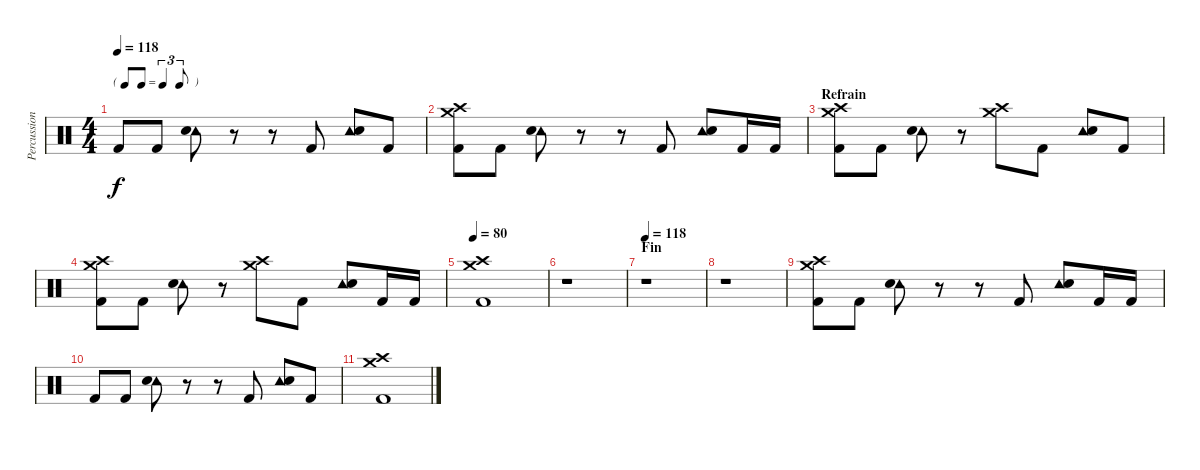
\track ("Percussions" "Percussion") {instrument percussion}
\staff {score}
\articulation defaults
\ts (4 4)
\tf triplet8th
\tempo 118
\clef neutral
\ks c "Kick (hit) 2".8{dy f} "Kick (hit) 2".8
("Tambourine (hit)" "Snare (hit) 2").8 r.8 r.8 "Kick (hit) 2".8 ("Tambourine (hit)" "Snare (hit) 2").8 "Kick (hit) 2".8 |
("Crash medium (hit)" "Crash high (hit)" "Kick (hit) 2").8 "Kick (hit) 2".8 ("Tambourine (hit)" "Snare (hit) 2").8 r.8 r.8 "Kick (hit) 2".8 ("Tambourine (hit)" "Snare (hit) 2").8 "Kick (hit) 2".16 "Kick (hit) 2".16 |
\section ("" "Refrain")
("Crash medium (hit)" "Crash high (hit)" "Kick (hit) 2").8 "Kick (hit) 2".8 ("Tambourine (hit)" "Snare (hit) 2").8 r.8 ("Crash medium (hit)" "Crash high (hit)").8 "Kick (hit) 2".8 ("Tambourine (hit)" "Snare (hit) 2").8 "Kick (hit) 2".8 |
("Crash medium (hit)" "Crash high (hit)" "Kick (hit) 2").8 "Kick (hit) 2".8 ("Tambourine (hit)" "Snare (hit) 2").8 r.8 ("Crash medium (hit)" "Crash high (hit)").8 "Kick (hit) 2".8 ("Tambourine (hit)" "Snare (hit) 2").8 "Kick (hit) 2".16 "Kick (hit) 2".16 |
\tempo 80
("Crash medium (hit)" "Crash high (hit)" "Kick (hit) 2").1 |
r.1 |
\section ("" "Fin")
\tempo 118
r.1 |
r.1 |
("Crash medium (hit)" "Crash high (hit)" "Kick (hit) 2").8 "Kick (hit) 2".8 ("Tambourine (hit)" "Snare (hit) 2").8 r.8 r.8 "Kick (hit) 2".8 ("Tambourine (hit)" "Snare (hit) 2").8 "Kick (hit) 2".16 "Kick (hit) 2".16 |
"Kick (hit) 2".8 "Kick (hit) 2".8 ("Tambourine (hit)" "Snare (hit) 2").8 r.8 r.8 "Kick (hit) 2".8 ("Tambourine (hit)" "Snare (hit) 2").8 "Kick (hit) 2".8 |
("Crash medium (hit)" "Crash high (hit)" "Kick (hit) 2").1
